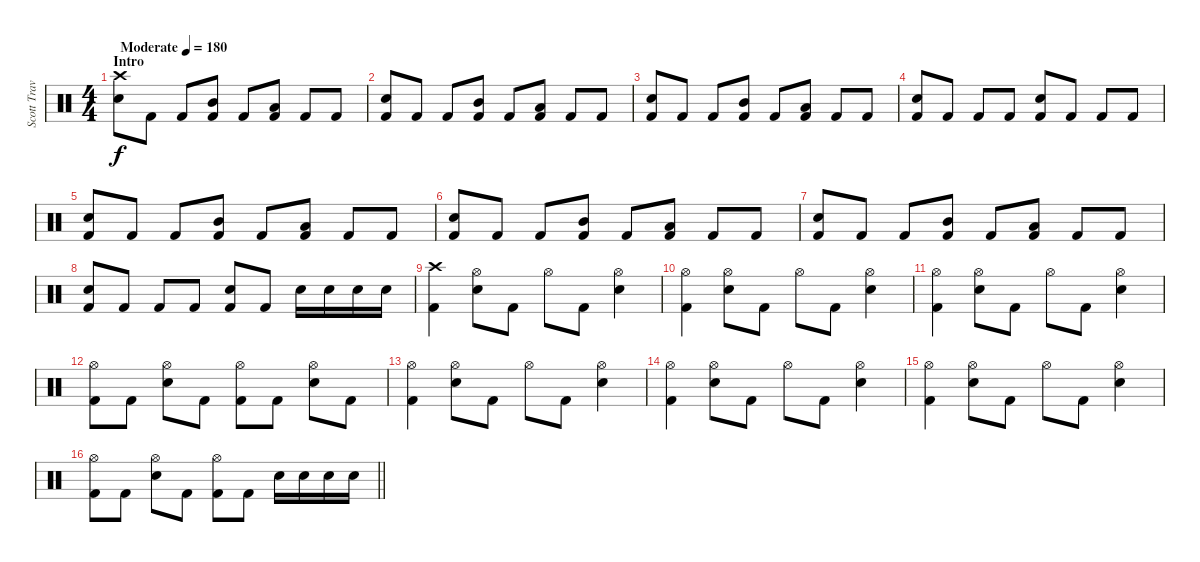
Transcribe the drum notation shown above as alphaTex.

\track ("Scott Travis" "Scott Trav") {instrument percussion}
\staff {score}
\articulation defaults
\ts (4 4)
\section ("" "Intro")
\tempo (180 "Moderate")
\clef neutral
\ks c
("Crash high (hit)" "Snare (hit) 2").8{dy f} "Kick (hit) 2".8 "Kick (hit) 2".8 ("Mid Tom (hit)" "Kick (hit) 2").8 "Kick (hit) 2".8 ("Low Tom (hit)" "Kick (hit) 2").8 "Kick (hit) 2".8 "Kick (hit) 2".8 |
("Snare (hit) 2" "Kick (hit) 2").8 "Kick (hit) 2".8 "Kick (hit) 2".8 ("Mid Tom (hit)" "Kick (hit) 2").8 "Kick (hit) 2".8 ("Low Tom (hit)" "Kick (hit) 2").8 "Kick (hit) 2".8 "Kick (hit) 2".8 |
("Snare (hit) 2" "Kick (hit) 2").8 "Kick (hit) 2".8 "Kick (hit) 2".8 ("Mid Tom (hit)" "Kick (hit) 2").8 "Kick (hit) 2".8 ("Low Tom (hit)" "Kick (hit) 2").8 "Kick (hit) 2".8 "Kick (hit) 2".8 |
("Snare (hit) 2" "Kick (hit) 2").8 "Kick (hit) 2".8 "Kick (hit) 2".8 "Kick (hit) 2".8 ("Snare (hit) 2" "Kick (hit) 2").8 "Kick (hit) 2".8 "Kick (hit) 2".8 "Kick (hit) 2".8 |
("Snare (hit) 2" "Kick (hit) 2").8 "Kick (hit) 2".8 "Kick (hit) 2".8 ("Mid Tom (hit)" "Kick (hit) 2").8 "Kick (hit) 2".8 ("Low Tom (hit)" "Kick (hit) 2").8 "Kick (hit) 2".8 "Kick (hit) 2".8 |
("Snare (hit) 2" "Kick (hit) 2").8 "Kick (hit) 2".8 "Kick (hit) 2".8 ("Mid Tom (hit)" "Kick (hit) 2").8 "Kick (hit) 2".8 ("Low Tom (hit)" "Kick (hit) 2").8 "Kick (hit) 2".8 "Kick (hit) 2".8 |
("Snare (hit) 2" "Kick (hit) 2").8 "Kick (hit) 2".8 "Kick (hit) 2".8 ("Mid Tom (hit)" "Kick (hit) 2").8 "Kick (hit) 2".8 ("Low Tom (hit)" "Kick (hit) 2").8 "Kick (hit) 2".8 "Kick (hit) 2".8 |
("Snare (hit) 2" "Kick (hit) 2").8 "Kick (hit) 2".8 "Kick (hit) 2".8 "Kick (hit) 2".8 ("Snare (hit) 2" "Kick (hit) 2").8 "Kick (hit) 2".8 "Snare (hit) 2".16 "Snare (hit) 2".16 "Snare (hit) 2".16 "Snare (hit) 2".16 |
("Crash high (hit)" "Kick (hit) 2").4 ("Hi-Hat (open)" "Snare (hit) 2").8 "Kick (hit) 2".8 "Hi-Hat (open)".8 "Kick (hit) 2".8 ("Hi-Hat (open)" "Snare (hit) 2").4 |
("Hi-Hat (open)" "Kick (hit) 2").4 ("Hi-Hat (open)" "Snare (hit) 2").8 "Kick (hit) 2".8 "Hi-Hat (open)".8 "Kick (hit) 2".8 ("Hi-Hat (open)" "Snare (hit) 2").4 |
("Hi-Hat (open)" "Kick (hit) 2").4 ("Hi-Hat (open)" "Snare (hit) 2").8 "Kick (hit) 2".8 "Hi-Hat (open)".8 "Kick (hit) 2".8 ("Hi-Hat (open)" "Snare (hit) 2").4 |
("Hi-Hat (open)" "Kick (hit) 2").8 "Kick (hit) 2".8 ("Hi-Hat (open)" "Snare (hit) 2").8 "Kick (hit) 2".8 ("Hi-Hat (open)" "Kick (hit) 2").8 "Kick (hit) 2".8 ("Hi-Hat (open)" "Snare (hit) 2").8 "Kick (hit) 2".8 |
("Hi-Hat (open)" "Kick (hit) 2").4 ("Hi-Hat (open)" "Snare (hit) 2").8 "Kick (hit) 2".8 "Hi-Hat (open)".8 "Kick (hit) 2".8 ("Hi-Hat (open)" "Snare (hit) 2").4 |
("Hi-Hat (open)" "Kick (hit) 2").4 ("Hi-Hat (open)" "Snare (hit) 2").8 "Kick (hit) 2".8 "Hi-Hat (open)".8 "Kick (hit) 2".8 ("Hi-Hat (open)" "Snare (hit) 2").4 |
("Hi-Hat (open)" "Kick (hit) 2").4 ("Hi-Hat (open)" "Snare (hit) 2").8 "Kick (hit) 2".8 "Hi-Hat (open)".8 "Kick (hit) 2".8 ("Hi-Hat (open)" "Snare (hit) 2").4 |
\barLineRight lightlight
("Hi-Hat (open)" "Kick (hit) 2").8 "Kick (hit) 2".8 ("Hi-Hat (open)" "Snare (hit) 2").8 "Kick (hit) 2".8 ("Hi-Hat (open)" "Kick (hit) 2").8 "Kick (hit) 2".8 "Snare (hit) 2".16 "Snare (hit) 2".16 "Snare (hit) 2".16 "Snare (hit) 2".16
